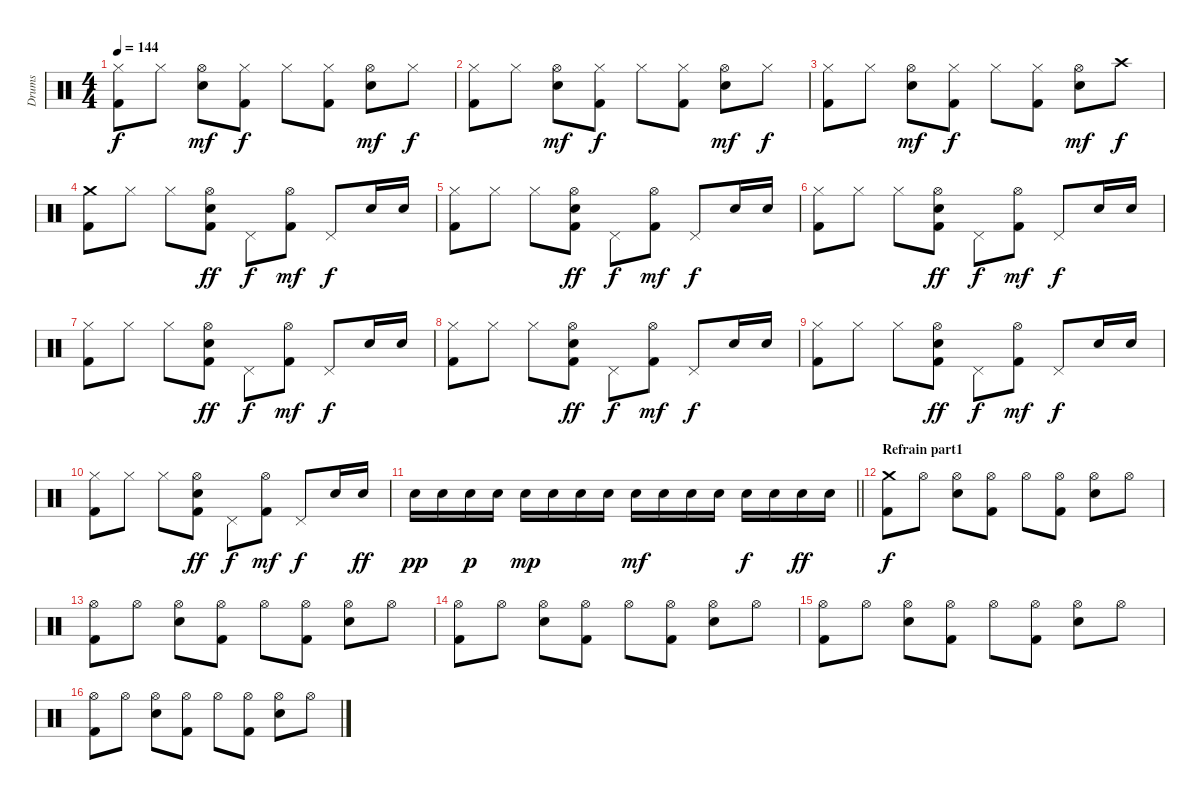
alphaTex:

\track ("Drums" "Drums") {instrument percussion}
\staff {score}
\articulation defaults
\ts (4 4)
\tempo 144
\clef neutral
\ks c
("Hi-Hat (closed)" "Kick (hit) 2").8{dy f} "Hi-Hat (closed)".8 ("Hi-Hat (open)" "Electric Snare (hit)").8{dy mf} ("Hi-Hat (closed)" "Kick (hit) 2").8{dy f} "Hi-Hat (closed)".8 ("Hi-Hat (closed)" "Kick (hit) 2").8 ("Hi-Hat (open)" "Electric Snare (hit)").8{dy mf} "Hi-Hat (closed)".8{dy f} |
("Hi-Hat (closed)" "Kick (hit) 2").8 "Hi-Hat (closed)".8 ("Hi-Hat (open)" "Electric Snare (hit)").8{dy mf} ("Hi-Hat (closed)" "Kick (hit) 2").8{dy f} "Hi-Hat (closed)".8 ("Hi-Hat (closed)" "Kick (hit) 2").8 ("Hi-Hat (open)" "Electric Snare (hit)").8{dy mf} "Hi-Hat (closed)".8{dy f} |
("Hi-Hat (closed)" "Kick (hit) 2").8 "Hi-Hat (closed)".8 ("Hi-Hat (open)" "Electric Snare (hit)").8{dy mf} ("Hi-Hat (closed)" "Kick (hit) 2").8{dy f} "Hi-Hat (closed)".8 ("Hi-Hat (closed)" "Kick (hit) 2").8 ("Hi-Hat (open)" "Electric Snare (hit)").8{dy mf} "Crash high (hit)".8{dy f} |
("Crash medium (hit)" "Kick (hit) 2").8 "Hi-Hat (closed)".8 "Hi-Hat (closed)".8 ("Hi-Hat (open)" "Electric Snare (hit)" "Kick (hit) 2").8{dy ff} "Pedal Hi-Hat (hit)".8{dy f} ("Hi-Hat (open)" "Kick (hit) 2").8{dy mf} "Pedal Hi-Hat (hit)".8{dy f} "Electric Snare (hit)".16 "Electric Snare (hit)".16 |
("Hi-Hat (closed)" "Kick (hit) 2").8 "Hi-Hat (closed)".8 "Hi-Hat (closed)".8 ("Hi-Hat (open)" "Electric Snare (hit)" "Kick (hit) 2").8{dy ff} "Pedal Hi-Hat (hit)".8{dy f} ("Hi-Hat (open)" "Kick (hit) 2").8{dy mf} "Pedal Hi-Hat (hit)".8{dy f} "Electric Snare (hit)".16 "Electric Snare (hit)".16 |
("Hi-Hat (closed)" "Kick (hit) 2").8 "Hi-Hat (closed)".8 "Hi-Hat (closed)".8 ("Hi-Hat (open)" "Electric Snare (hit)" "Kick (hit) 2").8{dy ff} "Pedal Hi-Hat (hit)".8{dy f} ("Hi-Hat (open)" "Kick (hit) 2").8{dy mf} "Pedal Hi-Hat (hit)".8{dy f} "Electric Snare (hit)".16 "Electric Snare (hit)".16 |
("Hi-Hat (closed)" "Kick (hit) 2").8 "Hi-Hat (closed)".8 "Hi-Hat (closed)".8 ("Hi-Hat (open)" "Electric Snare (hit)" "Kick (hit) 2").8{dy ff} "Pedal Hi-Hat (hit)".8{dy f} ("Hi-Hat (open)" "Kick (hit) 2").8{dy mf} "Pedal Hi-Hat (hit)".8{dy f} "Electric Snare (hit)".16 "Electric Snare (hit)".16 |
("Hi-Hat (closed)" "Kick (hit) 2").8 "Hi-Hat (closed)".8 "Hi-Hat (closed)".8 ("Hi-Hat (open)" "Electric Snare (hit)" "Kick (hit) 2").8{dy ff} "Pedal Hi-Hat (hit)".8{dy f} ("Hi-Hat (open)" "Kick (hit) 2").8{dy mf} "Pedal Hi-Hat (hit)".8{dy f} "Electric Snare (hit)".16 "Electric Snare (hit)".16 |
("Hi-Hat (closed)" "Kick (hit) 2").8 "Hi-Hat (closed)".8 "Hi-Hat (closed)".8 ("Hi-Hat (open)" "Electric Snare (hit)" "Kick (hit) 2").8{dy ff} "Pedal Hi-Hat (hit)".8{dy f} ("Hi-Hat (open)" "Kick (hit) 2").8{dy mf} "Pedal Hi-Hat (hit)".8{dy f} "Electric Snare (hit)".16 "Electric Snare (hit)".16 |
("Hi-Hat (closed)" "Kick (hit) 2").8 "Hi-Hat (closed)".8 "Hi-Hat (closed)".8 ("Hi-Hat (open)" "Electric Snare (hit)" "Kick (hit) 2").8{dy ff} "Pedal Hi-Hat (hit)".8{dy f} ("Hi-Hat (open)" "Kick (hit) 2").8{dy mf} "Pedal Hi-Hat (hit)".8{dy f} "Electric Snare (hit)".16 "Electric Snare (hit)".16{dy ff} |
\barLineRight lightlight "Electric Snare (hit)".16{dy pp} "Electric Snare (hit)".16 "Electric Snare (hit)".16{dy p} "Electric Snare (hit)".16 "Electric Snare (hit)".16{dy mp} "Electric Snare (hit)".16 "Electric Snare (hit)".16 "Electric Snare (hit)".16 "Electric Snare (hit)".16{dy mf} "Electric Snare (hit)".16 "Electric Snare (hit)".16 "Electric Snare (hit)".16 "Electric Snare (hit)".16{dy f} "Electric Snare (hit)".16 "Electric Snare (hit)".16{dy ff} "Electric Snare (hit)".16
|
\section ("" "Refrain part1")
("Crash medium (hit)" "Kick (hit) 2").8{dy f} "Hi-Hat (open)".8 ("Hi-Hat (open)" "Electric Snare (hit)").8 ("Hi-Hat (open)" "Kick (hit) 2").8 "Hi-Hat (open)".8 ("Hi-Hat (open)" "Kick (hit) 2").8 ("Hi-Hat (open)" "Electric Snare (hit)").8 "Hi-Hat (open)".8 |
("Hi-Hat (open)" "Kick (hit) 2").8 "Hi-Hat (open)".8 ("Hi-Hat (open)" "Electric Snare (hit)").8 ("Hi-Hat (open)" "Kick (hit) 2").8 "Hi-Hat (open)".8 ("Hi-Hat (open)" "Kick (hit) 2").8 ("Hi-Hat (open)" "Electric Snare (hit)").8 "Hi-Hat (open)".8 |
("Hi-Hat (open)" "Kick (hit) 2").8 "Hi-Hat (open)".8 ("Hi-Hat (open)" "Electric Snare (hit)").8 ("Hi-Hat (open)" "Kick (hit) 2").8 "Hi-Hat (open)".8 ("Hi-Hat (open)" "Kick (hit) 2").8 ("Hi-Hat (open)" "Electric Snare (hit)").8 "Hi-Hat (open)".8 |
("Hi-Hat (open)" "Kick (hit) 2").8 "Hi-Hat (open)".8 ("Hi-Hat (open)" "Electric Snare (hit)").8 ("Hi-Hat (open)" "Kick (hit) 2").8 "Hi-Hat (open)".8 ("Hi-Hat (open)" "Kick (hit) 2").8 ("Hi-Hat (open)" "Electric Snare (hit)").8 "Hi-Hat (open)".8 |
("Hi-Hat (open)" "Kick (hit) 2").8 "Hi-Hat (open)".8 ("Hi-Hat (open)" "Electric Snare (hit)").8 ("Hi-Hat (open)" "Kick (hit) 2").8 "Hi-Hat (open)".8 ("Hi-Hat (open)" "Kick (hit) 2").8 ("Hi-Hat (open)" "Electric Snare (hit)").8 "Hi-Hat (open)".8
